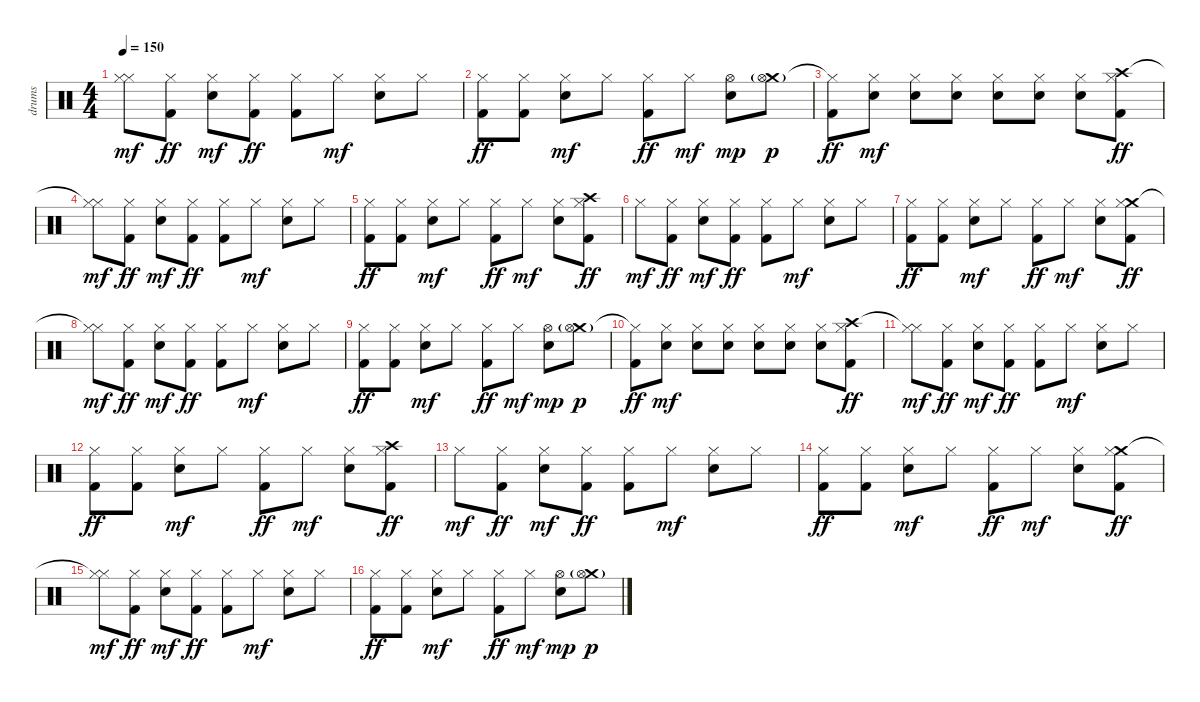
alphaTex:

\track ("drums" "drums") {instrument percussion}
\staff {score}
\articulation defaults
\ts (4 4)
\tempo 150
\clef neutral
\ks c
("Hi-Hat (closed)"{t} "Hi-Hat (closed)").8{dy mf} ("Hi-Hat (closed)" "Kick (hit) 2").8{dy ff} ("Hi-Hat (closed)" "Electric Snare (hit)").8{dy mf} ("Hi-Hat (closed)" "Kick (hit) 2").8{dy ff} ("Hi-Hat (closed)" "Kick (hit) 2").8 "Hi-Hat (closed)".8{dy mf} ("Hi-Hat (closed)" "Electric Snare (hit)").8 "Hi-Hat (closed)".8 |
("Hi-Hat (closed)" "Kick (hit) 2").8{dy ff} ("Hi-Hat (closed)" "Kick (hit) 2").8 ("Hi-Hat (closed)" "Electric Snare (hit)").8{dy mf} "Hi-Hat (closed)".8 ("Hi-Hat (closed)" "Kick (hit) 2").8{dy ff} "Hi-Hat (closed)".8{dy mf} ("Hi-Hat (open)" "Electric Snare (hit)").8{dy mp} ("Crash medium (hit)" "Hi-Hat (open)"{g}).8{dy p} |
("Hi-Hat (closed)"{t} "Kick (hit) 2").8{dy ff} ("Hi-Hat (closed)" "Electric Snare (hit)").8{dy mf} ("Hi-Hat (closed)" "Electric Snare (hit)").8 ("Hi-Hat (closed)" "Electric Snare (hit)").8 ("Hi-Hat (closed)" "Electric Snare (hit)").8 ("Hi-Hat (closed)" "Electric Snare (hit)").8 ("Hi-Hat (closed)" "Electric Snare (hit)").8 ("Crash high (hit)" "Hi-Hat (closed)" "Kick (hit) 2").8{dy ff} |
("Hi-Hat (closed)"{t} "Hi-Hat (closed)").8{dy mf} ("Hi-Hat (closed)" "Kick (hit) 2").8{dy ff} ("Hi-Hat (closed)" "Electric Snare (hit)").8{dy mf} ("Hi-Hat (closed)" "Kick (hit) 2").8{dy ff} ("Hi-Hat (closed)" "Kick (hit) 2").8 "Hi-Hat (closed)".8{dy mf} ("Hi-Hat (closed)" "Electric Snare (hit)").8 "Hi-Hat (closed)".8 |
("Hi-Hat (closed)" "Kick (hit) 2").8{dy ff} ("Hi-Hat (closed)" "Kick (hit) 2").8 ("Hi-Hat (closed)" "Electric Snare (hit)").8{dy mf} "Hi-Hat (closed)".8 ("Hi-Hat (closed)" "Kick (hit) 2").8{dy ff} "Hi-Hat (closed)".8{dy mf} ("Hi-Hat (closed)" "Electric Snare (hit)").8 ("Crash high (hit)" "Hi-Hat (closed)" "Kick (hit) 2").8{dy ff} |
"Hi-Hat (closed)".8{dy mf} ("Hi-Hat (closed)" "Kick (hit) 2").8{dy ff} ("Hi-Hat (closed)" "Electric Snare (hit)").8{dy mf} ("Hi-Hat (closed)" "Kick (hit) 2").8{dy ff} ("Hi-Hat (closed)" "Kick (hit) 2").8 "Hi-Hat (closed)".8{dy mf} ("Hi-Hat (closed)" "Electric Snare (hit)").8 "Hi-Hat (closed)".8 |
("Hi-Hat (closed)" "Kick (hit) 2").8{dy ff} ("Hi-Hat (closed)" "Kick (hit) 2").8 ("Hi-Hat (closed)" "Electric Snare (hit)").8{dy mf} "Hi-Hat (closed)".8 ("Hi-Hat (closed)" "Kick (hit) 2").8{dy ff} "Hi-Hat (closed)".8{dy mf} ("Hi-Hat (closed)" "Electric Snare (hit)").8 ("Crash medium (hit)" "Hi-Hat (closed)" "Kick (hit) 2").8{dy ff} |
("Hi-Hat (closed)"{t} "Hi-Hat (closed)").8{dy mf} ("Hi-Hat (closed)" "Kick (hit) 2").8{dy ff} ("Hi-Hat (closed)" "Electric Snare (hit)").8{dy mf} ("Hi-Hat (closed)" "Kick (hit) 2").8{dy ff} ("Hi-Hat (closed)" "Kick (hit) 2").8 "Hi-Hat (closed)".8{dy mf} ("Hi-Hat (closed)" "Electric Snare (hit)").8 "Hi-Hat (closed)".8 |
("Hi-Hat (closed)" "Kick (hit) 2").8{dy ff} ("Hi-Hat (closed)" "Kick (hit) 2").8 ("Hi-Hat (closed)" "Electric Snare (hit)").8{dy mf} "Hi-Hat (closed)".8 ("Hi-Hat (closed)" "Kick (hit) 2").8{dy ff} "Hi-Hat (closed)".8{dy mf} ("Hi-Hat (open)" "Electric Snare (hit)").8{dy mp} ("Crash medium (hit)" "Hi-Hat (open)"{g}).8{dy p} |
("Hi-Hat (closed)"{t} "Kick (hit) 2").8{dy ff} ("Hi-Hat (closed)" "Electric Snare (hit)").8{dy mf} ("Hi-Hat (closed)" "Electric Snare (hit)").8 ("Hi-Hat (closed)" "Electric Snare (hit)").8 ("Hi-Hat (closed)" "Electric Snare (hit)").8 ("Hi-Hat (closed)" "Electric Snare (hit)").8 ("Hi-Hat (closed)" "Electric Snare (hit)").8 ("Crash high (hit)" "Hi-Hat (closed)" "Kick (hit) 2").8{dy ff} |
("Hi-Hat (closed)"{t} "Hi-Hat (closed)").8{dy mf} ("Hi-Hat (closed)" "Kick (hit) 2").8{dy ff} ("Hi-Hat (closed)" "Electric Snare (hit)").8{dy mf} ("Hi-Hat (closed)" "Kick (hit) 2").8{dy ff} ("Hi-Hat (closed)" "Kick (hit) 2").8 "Hi-Hat (closed)".8{dy mf} ("Hi-Hat (closed)" "Electric Snare (hit)").8 "Hi-Hat (closed)".8 |
("Hi-Hat (closed)" "Kick (hit) 2").8{dy ff} ("Hi-Hat (closed)" "Kick (hit) 2").8 ("Hi-Hat (closed)" "Electric Snare (hit)").8{dy mf} "Hi-Hat (closed)".8 ("Hi-Hat (closed)" "Kick (hit) 2").8{dy ff} "Hi-Hat (closed)".8{dy mf} ("Hi-Hat (closed)" "Electric Snare (hit)").8 ("Crash high (hit)" "Hi-Hat (closed)" "Kick (hit) 2").8{dy ff} |
"Hi-Hat (closed)".8{dy mf} ("Hi-Hat (closed)" "Kick (hit) 2").8{dy ff} ("Hi-Hat (closed)" "Electric Snare (hit)").8{dy mf} ("Hi-Hat (closed)" "Kick (hit) 2").8{dy ff} ("Hi-Hat (closed)" "Kick (hit) 2").8 "Hi-Hat (closed)".8{dy mf} ("Hi-Hat (closed)" "Electric Snare (hit)").8 "Hi-Hat (closed)".8 |
("Hi-Hat (closed)" "Kick (hit) 2").8{dy ff} ("Hi-Hat (closed)" "Kick (hit) 2").8 ("Hi-Hat (closed)" "Electric Snare (hit)").8{dy mf} "Hi-Hat (closed)".8 ("Hi-Hat (closed)" "Kick (hit) 2").8{dy ff} "Hi-Hat (closed)".8{dy mf} ("Hi-Hat (closed)" "Electric Snare (hit)").8 ("Crash medium (hit)" "Hi-Hat (closed)" "Kick (hit) 2").8{dy ff} |
("Hi-Hat (closed)"{t} "Hi-Hat (closed)").8{dy mf} ("Hi-Hat (closed)" "Kick (hit) 2").8{dy ff} ("Hi-Hat (closed)" "Electric Snare (hit)").8{dy mf} ("Hi-Hat (closed)" "Kick (hit) 2").8{dy ff} ("Hi-Hat (closed)" "Kick (hit) 2").8 "Hi-Hat (closed)".8{dy mf} ("Hi-Hat (closed)" "Electric Snare (hit)").8 "Hi-Hat (closed)".8 |
("Hi-Hat (closed)" "Kick (hit) 2").8{dy ff} ("Hi-Hat (closed)" "Kick (hit) 2").8 ("Hi-Hat (closed)" "Electric Snare (hit)").8{dy mf} "Hi-Hat (closed)".8 ("Hi-Hat (closed)" "Kick (hit) 2").8{dy ff} "Hi-Hat (closed)".8{dy mf} ("Hi-Hat (open)" "Electric Snare (hit)").8{dy mp} ("Crash medium (hit)" "Hi-Hat (open)"{g}).8{dy p}
